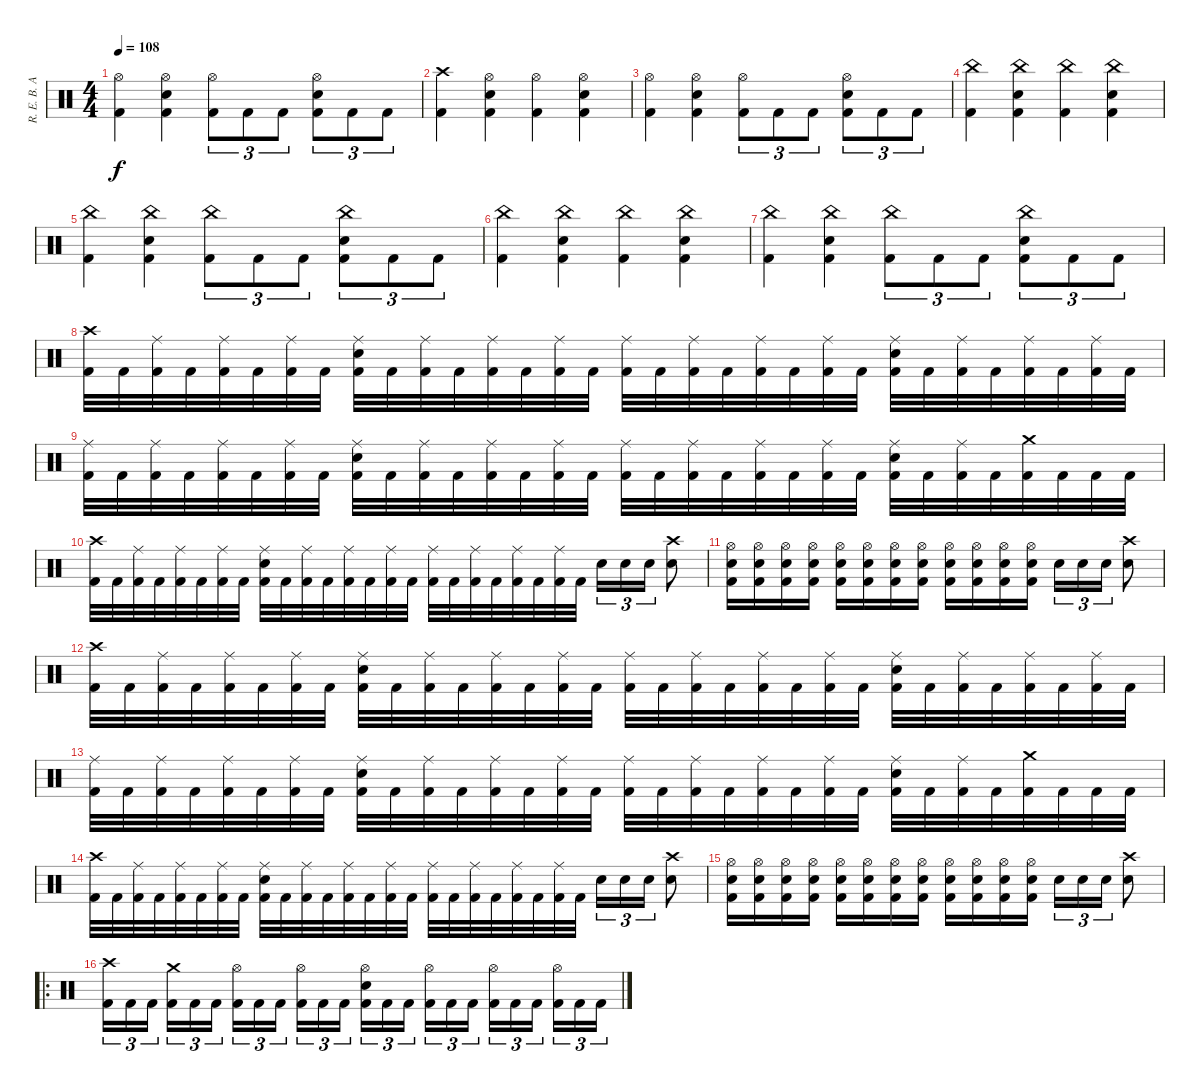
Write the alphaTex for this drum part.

\track ("R. E. B. A." "R. E. B. A") {instrument percussion}
\staff {score}
\articulation defaults
\ts (4 4)
\tempo 108
\clef neutral
\ks c
("Hi-Hat (open)" "Kick (hit) 2").4{dy f} ("Hi-Hat (open)" "Snare (hit) 2" "Kick (hit) 2").4 ("Hi-Hat (open)" "Kick (hit) 2").8{tu (3 2)} "Kick (hit) 2".8{tu (3 2)} "Kick (hit) 2".8{tu (3 2)} ("Hi-Hat (open)" "Snare (hit) 2" "Kick (hit) 2").8{tu (3 2)} "Kick (hit) 2".8{tu (3 2)} "Kick (hit) 2".8{tu (3 2)} |
("Crash high (hit)" "Kick (hit) 2").4 ("Hi-Hat (open)" "Snare (hit) 2" "Kick (hit) 2").4 ("Hi-Hat (open)" "Kick (hit) 2").4 ("Hi-Hat (open)" "Snare (hit) 2" "Kick (hit) 2").4 |
("Hi-Hat (open)" "Kick (hit) 2").4 ("Hi-Hat (open)" "Snare (hit) 2" "Kick (hit) 2").4 ("Hi-Hat (open)" "Kick (hit) 2").8{tu (3 2)} "Kick (hit) 2".8{tu (3 2)} "Kick (hit) 2".8{tu (3 2)} ("Hi-Hat (open)" "Snare (hit) 2" "Kick (hit) 2").8{tu (3 2)} "Kick (hit) 2".8{tu (3 2)} "Kick (hit) 2".8{tu (3 2)} |
("China (hit)" "Kick (hit) 2").4 ("China (hit)" "Snare (hit) 2" "Kick (hit) 2").4 ("China (hit)" "Kick (hit) 2").4 ("China (hit)" "Snare (hit) 2" "Kick (hit) 2").4 |
("China (hit)" "Kick (hit) 2").4 ("China (hit)" "Snare (hit) 2" "Kick (hit) 2").4 ("China (hit)" "Kick (hit) 2").8{tu (3 2)} "Kick (hit) 2".8{tu (3 2)} "Kick (hit) 2".8{tu (3 2)} ("China (hit)" "Snare (hit) 2" "Kick (hit) 2").8{tu (3 2)} "Kick (hit) 2".8{tu (3 2)} "Kick (hit) 2".8{tu (3 2)} |
("China (hit)" "Kick (hit) 2").4 ("China (hit)" "Snare (hit) 2" "Kick (hit) 2").4 ("China (hit)" "Kick (hit) 2").4 ("China (hit)" "Snare (hit) 2" "Kick (hit) 2").4 |
("China (hit)" "Kick (hit) 2").4 ("China (hit)" "Snare (hit) 2" "Kick (hit) 2").4 ("China (hit)" "Kick (hit) 2").8{tu (3 2)} "Kick (hit) 2".8{tu (3 2)} "Kick (hit) 2".8{tu (3 2)} ("China (hit)" "Snare (hit) 2" "Kick (hit) 2").8{tu (3 2)} "Kick (hit) 2".8{tu (3 2)} "Kick (hit) 2".8{tu (3 2)} |
("Crash high (hit)" "Kick (hit) 2").32 "Kick (hit) 2".32 ("Ride (middle)" "Kick (hit) 2").32 "Kick (hit) 2".32 ("Ride (middle)" "Kick (hit) 2").32 "Kick (hit) 2".32 ("Ride (middle)" "Kick (hit) 2").32 "Kick (hit) 2".32 ("Ride (middle)" "Snare (hit) 2" "Kick (hit) 2").32 "Kick (hit) 2".32 ("Ride (middle)" "Kick (hit) 2").32 "Kick (hit) 2".32 ("Ride (middle)" "Kick (hit) 2").32 "Kick (hit) 2".32 ("Ride (middle)" "Kick (hit) 2").32 "Kick (hit) 2".32 ("Ride (middle)" "Kick (hit) 2").32 "Kick (hit) 2".32 ("Ride (middle)" "Kick (hit) 2").32 "Kick (hit) 2".32 ("Ride (middle)" "Kick (hit) 2").32 "Kick (hit) 2".32 ("Ride (middle)" "Kick (hit) 2").32 "Kick (hit) 2".32 ("Ride (middle)" "Snare (hit) 2" "Kick (hit) 2").32 "Kick (hit) 2".32 ("Ride (middle)" "Kick (hit) 2").32 "Kick (hit) 2".32 ("Ride (middle)" "Kick (hit) 2").32 "Kick (hit) 2".32 ("Ride (middle)" "Kick (hit) 2").32 "Kick (hit) 2".32 |
("Ride (middle)" "Kick (hit) 2").32 "Kick (hit) 2".32 ("Ride (middle)" "Kick (hit) 2").32 "Kick (hit) 2".32 ("Ride (middle)" "Kick (hit) 2").32 "Kick (hit) 2".32 ("Ride (middle)" "Kick (hit) 2").32 "Kick (hit) 2".32 ("Ride (middle)" "Snare (hit) 2" "Kick (hit) 2").32 "Kick (hit) 2".32 ("Ride (middle)" "Kick (hit) 2").32 "Kick (hit) 2".32 ("Ride (middle)" "Kick (hit) 2").32 "Kick (hit) 2".32 ("Ride (middle)" "Kick (hit) 2").32 "Kick (hit) 2".32 ("Ride (middle)" "Kick (hit) 2").32 "Kick (hit) 2".32 ("Ride (middle)" "Kick (hit) 2").32 "Kick (hit) 2".32 ("Ride (middle)" "Kick (hit) 2").32 "Kick (hit) 2".32 ("Ride (middle)" "Kick (hit) 2").32 "Kick (hit) 2".32 ("Ride (middle)" "Snare (hit) 2" "Kick (hit) 2").32 "Kick (hit) 2".32 ("Ride (middle)" "Kick (hit) 2").32 "Kick (hit) 2".32 ("Crash medium (hit)" "Kick (hit) 2").32 "Kick (hit) 2".32 "Kick (hit) 2".32 "Kick (hit) 2".32 |
("Crash high (hit)" "Kick (hit) 2").32 "Kick (hit) 2".32 ("Ride (middle)" "Kick (hit) 2").32 "Kick (hit) 2".32 ("Ride (middle)" "Kick (hit) 2").32 "Kick (hit) 2".32 ("Ride (middle)" "Kick (hit) 2").32 "Kick (hit) 2".32 ("Ride (middle)" "Snare (hit) 2" "Kick (hit) 2").32 "Kick (hit) 2".32 ("Ride (middle)" "Kick (hit) 2").32 "Kick (hit) 2".32 ("Ride (middle)" "Kick (hit) 2").32 "Kick (hit) 2".32 ("Ride (middle)" "Kick (hit) 2").32 "Kick (hit) 2".32 ("Ride (middle)" "Kick (hit) 2").32 "Kick (hit) 2".32 ("Ride (middle)" "Kick (hit) 2").32 "Kick (hit) 2".32 ("Ride (middle)" "Kick (hit) 2").32 "Kick (hit) 2".32 ("Ride (middle)" "Kick (hit) 2").32 "Kick (hit) 2".32 "Snare (hit) 2".16{tu (3 2)} "Snare (hit) 2".16{tu (3 2)} "Snare (hit) 2".16{tu (3 2)} ("Crash high (hit)" "Snare (hit) 2").8 |
("Hi-Hat (open)" "Snare (hit) 2" "Kick (hit) 2").16 ("Hi-Hat (open)" "Snare (hit) 2" "Kick (hit) 2").16 ("Hi-Hat (open)" "Snare (hit) 2" "Kick (hit) 2").16 ("Hi-Hat (open)" "Snare (hit) 2" "Kick (hit) 2").16 ("Hi-Hat (open)" "Snare (hit) 2" "Kick (hit) 2").16 ("Hi-Hat (open)" "Snare (hit) 2" "Kick (hit) 2").16 ("Hi-Hat (open)" "Snare (hit) 2" "Kick (hit) 2").16 ("Hi-Hat (open)" "Snare (hit) 2" "Kick (hit) 2").16 ("Hi-Hat (open)" "Snare (hit) 2" "Kick (hit) 2").16 ("Hi-Hat (open)" "Snare (hit) 2" "Kick (hit) 2").16 ("Hi-Hat (open)" "Snare (hit) 2" "Kick (hit) 2").16 ("Hi-Hat (open)" "Snare (hit) 2" "Kick (hit) 2").16 "Snare (hit) 2".16{tu (3 2)} "Snare (hit) 2".16{tu (3 2)} "Snare (hit) 2".16{tu (3 2)} ("Crash high (hit)" "Snare (hit) 2").8 |
("Crash high (hit)" "Kick (hit) 2").32 "Kick (hit) 2".32 ("Ride (middle)" "Kick (hit) 2").32 "Kick (hit) 2".32 ("Ride (middle)" "Kick (hit) 2").32 "Kick (hit) 2".32 ("Ride (middle)" "Kick (hit) 2").32 "Kick (hit) 2".32 ("Ride (middle)" "Snare (hit) 2" "Kick (hit) 2").32 "Kick (hit) 2".32 ("Ride (middle)" "Kick (hit) 2").32 "Kick (hit) 2".32 ("Ride (middle)" "Kick (hit) 2").32 "Kick (hit) 2".32 ("Ride (middle)" "Kick (hit) 2").32 "Kick (hit) 2".32 ("Ride (middle)" "Kick (hit) 2").32 "Kick (hit) 2".32 ("Ride (middle)" "Kick (hit) 2").32 "Kick (hit) 2".32 ("Ride (middle)" "Kick (hit) 2").32 "Kick (hit) 2".32 ("Ride (middle)" "Kick (hit) 2").32 "Kick (hit) 2".32 ("Ride (middle)" "Snare (hit) 2" "Kick (hit) 2").32 "Kick (hit) 2".32 ("Ride (middle)" "Kick (hit) 2").32 "Kick (hit) 2".32 ("Ride (middle)" "Kick (hit) 2").32 "Kick (hit) 2".32 ("Ride (middle)" "Kick (hit) 2").32 "Kick (hit) 2".32 |
("Ride (middle)" "Kick (hit) 2").32 "Kick (hit) 2".32 ("Ride (middle)" "Kick (hit) 2").32 "Kick (hit) 2".32 ("Ride (middle)" "Kick (hit) 2").32 "Kick (hit) 2".32 ("Ride (middle)" "Kick (hit) 2").32 "Kick (hit) 2".32 ("Ride (middle)" "Snare (hit) 2" "Kick (hit) 2").32 "Kick (hit) 2".32 ("Ride (middle)" "Kick (hit) 2").32 "Kick (hit) 2".32 ("Ride (middle)" "Kick (hit) 2").32 "Kick (hit) 2".32 ("Ride (middle)" "Kick (hit) 2").32 "Kick (hit) 2".32 ("Ride (middle)" "Kick (hit) 2").32 "Kick (hit) 2".32 ("Ride (middle)" "Kick (hit) 2").32 "Kick (hit) 2".32 ("Ride (middle)" "Kick (hit) 2").32 "Kick (hit) 2".32 ("Ride (middle)" "Kick (hit) 2").32 "Kick (hit) 2".32 ("Ride (middle)" "Snare (hit) 2" "Kick (hit) 2").32 "Kick (hit) 2".32 ("Ride (middle)" "Kick (hit) 2").32 "Kick (hit) 2".32 ("Crash medium (hit)" "Kick (hit) 2").32 "Kick (hit) 2".32 "Kick (hit) 2".32 "Kick (hit) 2".32 |
("Crash high (hit)" "Kick (hit) 2").32 "Kick (hit) 2".32 ("Ride (middle)" "Kick (hit) 2").32 "Kick (hit) 2".32 ("Ride (middle)" "Kick (hit) 2").32 "Kick (hit) 2".32 ("Ride (middle)" "Kick (hit) 2").32 "Kick (hit) 2".32 ("Ride (middle)" "Snare (hit) 2" "Kick (hit) 2").32 "Kick (hit) 2".32 ("Ride (middle)" "Kick (hit) 2").32 "Kick (hit) 2".32 ("Ride (middle)" "Kick (hit) 2").32 "Kick (hit) 2".32 ("Ride (middle)" "Kick (hit) 2").32 "Kick (hit) 2".32 ("Ride (middle)" "Kick (hit) 2").32 "Kick (hit) 2".32 ("Ride (middle)" "Kick (hit) 2").32 "Kick (hit) 2".32 ("Ride (middle)" "Kick (hit) 2").32 "Kick (hit) 2".32 ("Ride (middle)" "Kick (hit) 2").32 "Kick (hit) 2".32 "Snare (hit) 2".16{tu (3 2)} "Snare (hit) 2".16{tu (3 2)} "Snare (hit) 2".16{tu (3 2)} ("Crash high (hit)" "Snare (hit) 2").8 |
("Hi-Hat (open)" "Snare (hit) 2" "Kick (hit) 2").16 ("Hi-Hat (open)" "Snare (hit) 2" "Kick (hit) 2").16 ("Hi-Hat (open)" "Snare (hit) 2" "Kick (hit) 2").16 ("Hi-Hat (open)" "Snare (hit) 2" "Kick (hit) 2").16 ("Hi-Hat (open)" "Snare (hit) 2" "Kick (hit) 2").16 ("Hi-Hat (open)" "Snare (hit) 2" "Kick (hit) 2").16 ("Hi-Hat (open)" "Snare (hit) 2" "Kick (hit) 2").16 ("Hi-Hat (open)" "Snare (hit) 2" "Kick (hit) 2").16 ("Hi-Hat (open)" "Snare (hit) 2" "Kick (hit) 2").16 ("Hi-Hat (open)" "Snare (hit) 2" "Kick (hit) 2").16 ("Hi-Hat (open)" "Snare (hit) 2" "Kick (hit) 2").16 ("Hi-Hat (open)" "Snare (hit) 2" "Kick (hit) 2").16 "Snare (hit) 2".16{tu (3 2)} "Snare (hit) 2".16{tu (3 2)} "Snare (hit) 2".16{tu (3 2)} ("Crash high (hit)" "Snare (hit) 2").8 |
\ro
("Crash high (hit)" "Kick (hit) 2").16{tu (3 2)} "Kick (hit) 2".16{tu (3 2)} "Kick (hit) 2".16{tu (3 2)} ("Crash medium (hit)" "Kick (hit) 2").16{tu (3 2)} "Kick (hit) 2".16{tu (3 2)} "Kick (hit) 2".16{tu (3 2)} ("Hi-Hat (open)" "Kick (hit) 2").16{tu (3 2)} "Kick (hit) 2".16{tu (3 2)} "Kick (hit) 2".16{tu (3 2)} ("Hi-Hat (open)" "Kick (hit) 2").16{tu (3 2)} "Kick (hit) 2".16{tu (3 2)} "Kick (hit) 2".16{tu (3 2)} ("Hi-Hat (open)" "Snare (hit) 2" "Kick (hit) 2").16{tu (3 2)} "Kick (hit) 2".16{tu (3 2)} "Kick (hit) 2".16{tu (3 2)} ("Hi-Hat (open)" "Kick (hit) 2").16{tu (3 2)} "Kick (hit) 2".16{tu (3 2)} "Kick (hit) 2".16{tu (3 2)} ("Hi-Hat (open)" "Kick (hit) 2").16{tu (3 2)} "Kick (hit) 2".16{tu (3 2)} "Kick (hit) 2".16{tu (3 2)} ("Hi-Hat (open)" "Kick (hit) 2").16{tu (3 2)} "Kick (hit) 2".16{tu (3 2)} "Kick (hit) 2".16{tu (3 2)}
